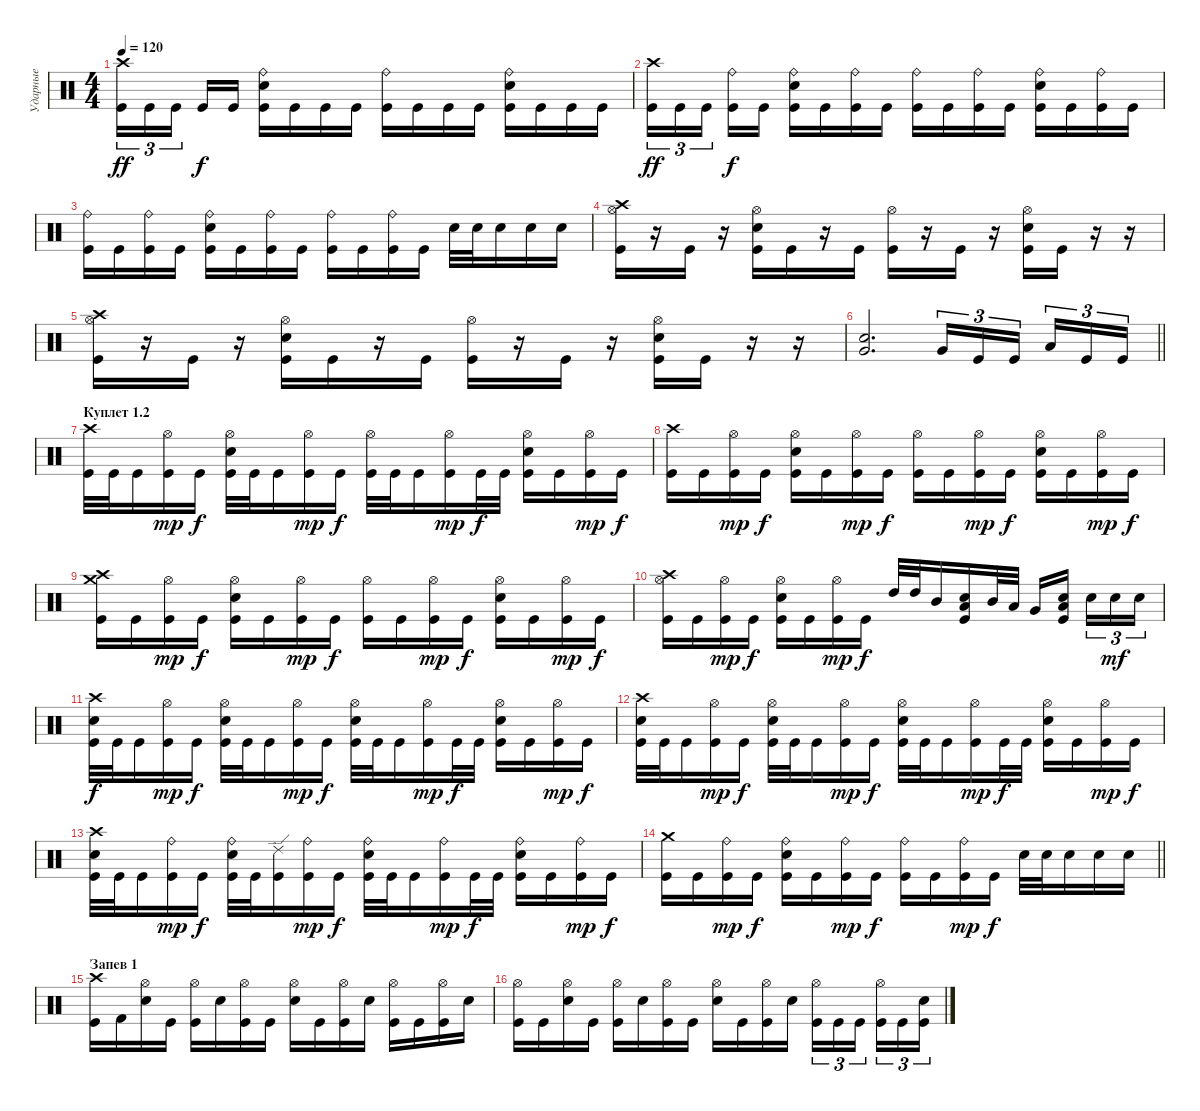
\track ("Ударные" "Ударные") {instrument percussion}
\staff {score}
\articulation defaults
\ts (4 4)
\tempo 120
\clef neutral
\ks c
("Kick (hit)" "Crash high (hit)").16{tu (3 2) dy ff} "Kick (hit)".16{tu (3 2)} "Kick (hit)".16{tu (3 2)} "Kick (hit)".16{dy f} "Kick (hit)".16 ("Kick (hit)" "Snare (hit) 2" "Ride (bell)").16 "Kick (hit)".16 "Kick (hit)".16 "Kick (hit)".16 ("Kick (hit)" "Ride (bell)").16 "Kick (hit)".16 "Kick (hit)".16 "Kick (hit)".16 ("Kick (hit)" "Snare (hit) 2" "Ride (bell)").16 "Kick (hit)".16 "Kick (hit)".16 "Kick (hit)".16 |
("Kick (hit)" "Crash high (hit)").16{tu (3 2) dy ff} "Kick (hit)".16{tu (3 2)} "Kick (hit)".16{tu (3 2)} ("Kick (hit)" "Ride (bell)").16{dy f} "Kick (hit)".16 ("Kick (hit)" "Snare (hit) 2" "Ride (bell)").16 "Kick (hit)".16 ("Kick (hit)" "Ride (bell)").16 "Kick (hit)".16 ("Kick (hit)" "Ride (bell)").16 "Kick (hit)".16 ("Kick (hit)" "Ride (bell)").16 "Kick (hit)".16 ("Kick (hit)" "Snare (hit) 2" "Ride (bell)").16 "Kick (hit)".16 ("Kick (hit)" "Ride (bell)").16 "Kick (hit)".16 |
("Kick (hit)" "Ride (bell)").16 "Kick (hit)".16 ("Kick (hit)" "Ride (bell)").16 "Kick (hit)".16 ("Kick (hit)" "Snare (hit) 2" "Ride (bell)").16 "Kick (hit)".16 ("Kick (hit)" "Ride (bell)").16 "Kick (hit)".16 ("Kick (hit)" "Ride (bell)").16 "Kick (hit)".16 ("Kick (hit)" "Ride (bell)").16 "Kick (hit)".16 "Snare (hit) 2".32 "Snare (hit) 2".32 "Snare (hit) 2".16 "Snare (hit) 2".16 "Snare (hit) 2".16 |
("Crash high (hit)" "Kick (hit)" "Hi-Hat (open)").16 r.16 "Kick (hit)".16 r.16 ("Snare (hit) 2" "Kick (hit)" "Hi-Hat (open)").16 "Kick (hit)".16 r.16 "Kick (hit)".16 ("Kick (hit)" "Hi-Hat (open)").16 r.16 "Kick (hit)".16 r.16 ("Snare (hit) 2" "Kick (hit)" "Hi-Hat (open)").16 "Kick (hit)".16 r.16 r.16 |
("Crash high (hit)" "Kick (hit)" "Hi-Hat (open)").16 r.16 "Kick (hit)".16 r.16 ("Snare (hit) 2" "Kick (hit)" "Hi-Hat (open)").16 "Kick (hit)".16 r.16 "Kick (hit)".16 ("Kick (hit)" "Hi-Hat (open)").16 r.16 "Kick (hit)".16 r.16 ("Snare (hit) 2" "Kick (hit)" "Hi-Hat (open)").16 "Kick (hit)".16 r.16 r.16 |
\barLineRight lightlight
("Snare (hit) 2" "Very Low Tom (hit)").2{d} "Very Low Tom (hit)".16{tu (3 2)} "Kick (hit)".16{tu (3 2)} "Kick (hit)".16{tu (3 2)} "Low Floor Tom (hit)".16{tu (3 2)} "Kick (hit)".16{tu (3 2)} "Kick (hit)".16{tu (3 2)} |
\section ("" "Куплет 1.2")
("Crash high (hit)" "Kick (hit)").32 "Kick (hit)".32 "Kick (hit)".16 ("Hi-Hat (open)" "Kick (hit)").16{dy mp} "Kick (hit)".16{dy f} ("Hi-Hat (open)" "Snare (hit) 2" "Kick (hit)").32 "Kick (hit)".32 "Kick (hit)".16 ("Hi-Hat (open)" "Kick (hit)").16{dy mp} "Kick (hit)".16{dy f} ("Hi-Hat (open)" "Kick (hit)").32 "Kick (hit)".32 "Kick (hit)".16 ("Hi-Hat (open)" "Kick (hit)").16{dy mp} "Kick (hit)".32{dy f} "Kick (hit)".32 ("Hi-Hat (open)" "Snare (hit) 2" "Kick (hit)").16 "Kick (hit)".16 ("Hi-Hat (open)" "Kick (hit)").16{dy mp} "Kick (hit)".16{dy f} |
("Crash high (hit)" "Kick (hit)").16 "Kick (hit)".16 ("Hi-Hat (open)" "Kick (hit)").16{dy mp} "Kick (hit)".16{dy f} ("Hi-Hat (open)" "Snare (hit) 2" "Kick (hit)").16 "Kick (hit)".16 ("Hi-Hat (open)" "Kick (hit)").16{dy mp} "Kick (hit)".16{dy f} ("Hi-Hat (open)" "Kick (hit)").16 "Kick (hit)".16 ("Hi-Hat (open)" "Kick (hit)").16{dy mp} "Kick (hit)".16{dy f} ("Hi-Hat (open)" "Snare (hit) 2" "Kick (hit)").16 "Kick (hit)".16 ("Hi-Hat (open)" "Kick (hit)").16{dy mp} "Kick (hit)".16{dy f} |
("Crash high (hit)" "Crash medium (hit)" "Kick (hit)").16 "Kick (hit)".16 ("Hi-Hat (open)" "Kick (hit)").16{dy mp} "Kick (hit)".16{dy f} ("Hi-Hat (open)" "Snare (hit) 2" "Kick (hit)").16 "Kick (hit)".16 ("Hi-Hat (open)" "Kick (hit)").16{dy mp} "Kick (hit)".16{dy f} ("Hi-Hat (open)" "Kick (hit)").16 "Kick (hit)".16 ("Hi-Hat (open)" "Kick (hit)").16{dy mp} "Kick (hit)".16{dy f} ("Hi-Hat (open)" "Snare (hit) 2" "Kick (hit)").16 "Kick (hit)".16 ("Hi-Hat (open)" "Kick (hit)").16{dy mp} "Kick (hit)".16{dy f} |
("Kick (hit)" "Crash high (hit)" "Hi-Hat (open)").16 "Kick (hit)".16 ("Kick (hit)" "Hi-Hat (open)").16{dy mp} "Kick (hit)".16{dy f} ("Kick (hit)" "Snare (hit) 2" "Hi-Hat (open)").16 "Kick (hit)".16 ("Kick (hit)" "Hi-Hat (open)").16{dy mp} "Kick (hit)".16{dy f} "High Tom (hit)".32 "High Tom (hit)".32 "Mid Tom (hit)".16 ("Snare (hit) 2" "Kick (hit)" "Low Floor Tom (hit)").16 "Mid Tom (hit)".32 "Low Tom (hit)".32 "Very Low Tom (hit)".16 ("Kick (hit)" "Snare (hit) 2" "Low Floor Tom (hit)").16 "Snare (hit) 2".16{tu (3 2)} "Snare (hit) 2".16{tu (3 2) dy mf} "Snare (hit) 2".16{tu (3 2)} |
("Snare (hit) 2" "Crash high (hit)" "Kick (hit)").32{dy f} "Kick (hit)".32 "Kick (hit)".16 ("Hi-Hat (open)" "Kick (hit)").16{dy mp} "Kick (hit)".16{dy f} ("Snare (hit) 2" "Hi-Hat (open)" "Kick (hit)").32 "Kick (hit)".32 "Kick (hit)".16 ("Hi-Hat (open)" "Kick (hit)").16{dy mp} "Kick (hit)".16{dy f} ("Snare (hit) 2" "Hi-Hat (open)" "Kick (hit)").32 "Kick (hit)".32 "Kick (hit)".16 ("Hi-Hat (open)" "Kick (hit)").16{dy mp} "Kick (hit)".32{dy f} "Kick (hit)".32 ("Snare (hit) 2" "Hi-Hat (open)" "Kick (hit)").16 "Kick (hit)".16 ("Hi-Hat (open)" "Kick (hit)").16{dy mp} "Kick (hit)".16{dy f} |
("Snare (hit) 2" "Crash high (hit)" "Kick (hit)").32 "Kick (hit)".32 "Kick (hit)".16 ("Hi-Hat (open)" "Kick (hit)").16{dy mp} "Kick (hit)".16{dy f} ("Snare (hit) 2" "Hi-Hat (open)" "Kick (hit)").32 "Kick (hit)".32 "Kick (hit)".16 ("Hi-Hat (open)" "Kick (hit)").16{dy mp} "Kick (hit)".16{dy f} ("Snare (hit) 2" "Hi-Hat (open)" "Kick (hit)").32 "Kick (hit)".32 "Kick (hit)".16 ("Hi-Hat (open)" "Kick (hit)").16{dy mp} "Kick (hit)".32{dy f} "Kick (hit)".32 ("Snare (hit) 2" "Hi-Hat (open)" "Kick (hit)").16 "Kick (hit)".16 ("Hi-Hat (open)" "Kick (hit)").16{dy mp} "Kick (hit)".16{dy f} |
("Snare (hit) 2" "Crash high (hit)" "Kick (hit)").32 "Kick (hit)".32 "Kick (hit)".16 ("Ride (bell)" "Kick (hit)").16{dy mp} "Kick (hit)".16{dy f} ("Snare (hit) 2" "Ride (bell)" "Kick (hit)").32 "Kick (hit)".32 ("Ride (edge) 2" "Kick (hit)").16 ("Ride (bell)" "Kick (hit)").16{dy mp} "Kick (hit)".16{dy f} ("Snare (hit) 2" "Ride (bell)" "Kick (hit)").32 "Kick (hit)".32 "Kick (hit)".16 ("Ride (bell)" "Kick (hit)").16{dy mp} "Kick (hit)".32{dy f} "Kick (hit)".32 ("Snare (hit) 2" "Ride (bell)" "Kick (hit)").16 "Kick (hit)".16 ("Ride (bell)" "Kick (hit)").16{dy mp} "Kick (hit)".16{dy f} |
\barLineRight lightlight
("Crash medium (hit)" "Kick (hit)").16 "Kick (hit)".16 ("Ride (bell)" "Kick (hit)").16{dy mp} "Kick (hit)".16{dy f} ("Ride (bell)" "Snare (hit) 2" "Kick (hit)").16 "Kick (hit)".16 ("Ride (bell)" "Kick (hit)").16{dy mp} "Kick (hit)".16{dy f} ("Ride (bell)" "Kick (hit)").16 "Kick (hit)".16 ("Ride (bell)" "Kick (hit)").16{dy mp} "Kick (hit)".16{dy f} "Snare (hit) 2".32 "Snare (hit) 2".32 "Snare (hit) 2".16 "Snare (hit) 2".16 "Snare (hit) 2".16 |
\section ("" "Запев 1")
("Kick (hit)" "Crash high (hit)").16 "Kick (hit) 2".16 ("Snare (hit) 2" "Hi-Hat (open)").16 "Kick (hit)".16 ("Kick (hit)" "Hi-Hat (open)").16 "Snare (hit) 2".16 ("Kick (hit)" "Hi-Hat (open)").16 "Kick (hit)".16 ("Snare (hit) 2" "Hi-Hat (open)").16 "Kick (hit)".16 ("Kick (hit)" "Hi-Hat (open)").16 "Snare (hit) 2".16 ("Kick (hit)" "Hi-Hat (open)").16 "Kick (hit)".16 ("Kick (hit)" "Hi-Hat (open)").16 "Snare (hit) 2".16 |
("Kick (hit)" "Hi-Hat (open)").16 "Kick (hit)".16 ("Snare (hit) 2" "Hi-Hat (open)").16 "Kick (hit)".16 ("Kick (hit)" "Hi-Hat (open)").16 "Snare (hit) 2".16 ("Kick (hit)" "Hi-Hat (open)").16 "Kick (hit)".16 ("Snare (hit) 2" "Hi-Hat (open)").16 "Kick (hit)".16 ("Kick (hit)" "Hi-Hat (open)").16 "Snare (hit) 2".16 ("Kick (hit)" "Hi-Hat (open)").16{tu (3 2)} "Kick (hit)".16{tu (3 2)} "Kick (hit)".16{tu (3 2)} ("Kick (hit)" "Hi-Hat (open)").16{tu (3 2)} "Kick (hit)".16{tu (3 2)} ("Kick (hit)" "Snare (hit) 2").16{tu (3 2)}
